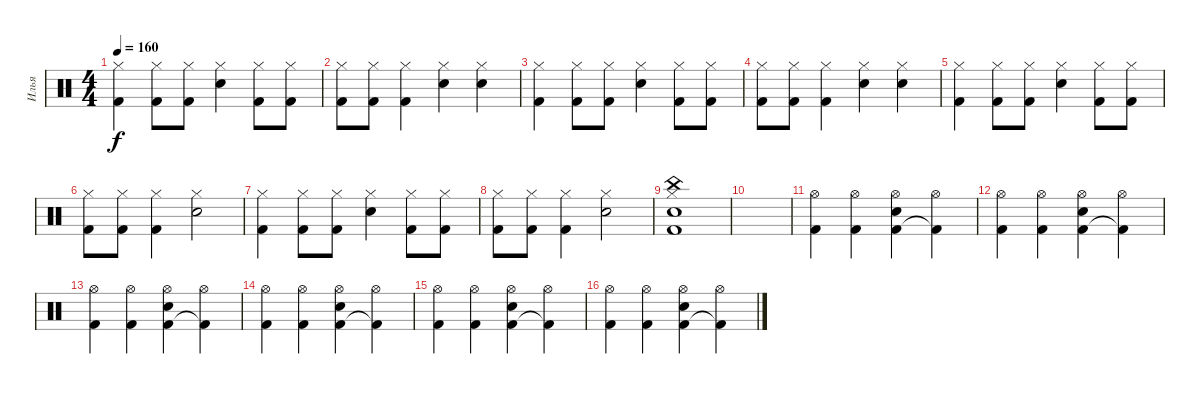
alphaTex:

\track ("Илья" "Илья") {instrument percussion}
\staff {score}
\articulation defaults
\ts (4 4)
\tempo 160
\clef neutral
\ks c
("Kick (hit) 2" "Hi-Hat (closed)").4{dy f} ("Kick (hit) 2" "Hi-Hat (closed)").8 ("Kick (hit) 2" "Hi-Hat (closed)").8 ("Electric Snare (hit)" "Hi-Hat (closed)").4 ("Kick (hit) 2" "Hi-Hat (closed)").8 ("Kick (hit) 2" "Hi-Hat (closed)").8 |
("Kick (hit) 2" "Hi-Hat (closed)").8 ("Kick (hit) 2" "Hi-Hat (closed)").8 ("Kick (hit) 2" "Hi-Hat (closed)").4 ("Electric Snare (hit)" "Hi-Hat (closed)").4 ("Electric Snare (hit)" "Hi-Hat (closed)").4 |
("Kick (hit) 2" "Hi-Hat (closed)").4 ("Kick (hit) 2" "Hi-Hat (closed)").8 ("Kick (hit) 2" "Hi-Hat (closed)").8 ("Electric Snare (hit)" "Hi-Hat (closed)").4 ("Kick (hit) 2" "Hi-Hat (closed)").8 ("Kick (hit) 2" "Hi-Hat (closed)").8 |
("Kick (hit) 2" "Hi-Hat (closed)").8 ("Kick (hit) 2" "Hi-Hat (closed)").8 ("Kick (hit) 2" "Hi-Hat (closed)").4 ("Electric Snare (hit)" "Hi-Hat (closed)").4 ("Electric Snare (hit)" "Hi-Hat (closed)").4 |
("Kick (hit) 2" "Hi-Hat (closed)").4 ("Kick (hit) 2" "Hi-Hat (closed)").8 ("Kick (hit) 2" "Hi-Hat (closed)").8 ("Electric Snare (hit)" "Hi-Hat (closed)").4 ("Kick (hit) 2" "Hi-Hat (closed)").8 ("Kick (hit) 2" "Hi-Hat (closed)").8 |
("Kick (hit) 2" "Hi-Hat (closed)").8 ("Kick (hit) 2" "Hi-Hat (closed)").8 ("Kick (hit) 2" "Hi-Hat (closed)").4 ("Electric Snare (hit)" "Hi-Hat (closed)").2 |
("Kick (hit) 2" "Hi-Hat (closed)").4 ("Kick (hit) 2" "Hi-Hat (closed)").8 ("Kick (hit) 2" "Hi-Hat (closed)").8 ("Electric Snare (hit)" "Hi-Hat (closed)").4 ("Kick (hit) 2" "Hi-Hat (closed)").8 ("Kick (hit) 2" "Hi-Hat (closed)").8 |
("Kick (hit) 2" "Hi-Hat (closed)").8 ("Kick (hit) 2" "Hi-Hat (closed)").8 ("Kick (hit) 2" "Hi-Hat (closed)").4 ("Electric Snare (hit)" "Hi-Hat (closed)").2 |
("China (hit)" "Electric Snare (hit)" "Kick (hit) 2" "Hi-Hat (closed)").1 |
|
("Kick (hit) 2" "Hi-Hat (open)").4 ("Kick (hit) 2" "Hi-Hat (open)").4 ("Kick (hit) 2" "Electric Snare (hit)" "Hi-Hat (open)").4 ("Kick (hit) 2"{t} "Hi-Hat (open)").4 |
("Kick (hit) 2" "Hi-Hat (open)").4 ("Kick (hit) 2" "Hi-Hat (open)").4 ("Kick (hit) 2" "Electric Snare (hit)" "Hi-Hat (open)").4 ("Kick (hit) 2"{t} "Hi-Hat (open)").4 |
("Kick (hit) 2" "Hi-Hat (open)").4 ("Kick (hit) 2" "Hi-Hat (open)").4 ("Kick (hit) 2" "Electric Snare (hit)" "Hi-Hat (open)").4 ("Kick (hit) 2"{t} "Hi-Hat (open)").4 |
("Kick (hit) 2" "Hi-Hat (open)").4 ("Kick (hit) 2" "Hi-Hat (open)").4 ("Kick (hit) 2" "Electric Snare (hit)" "Hi-Hat (open)").4 ("Kick (hit) 2"{t} "Hi-Hat (open)").4 |
("Kick (hit) 2" "Hi-Hat (open)").4 ("Kick (hit) 2" "Hi-Hat (open)").4 ("Kick (hit) 2" "Electric Snare (hit)" "Hi-Hat (open)").4 ("Kick (hit) 2"{t} "Hi-Hat (open)").4 |
("Kick (hit) 2" "Hi-Hat (open)").4 ("Kick (hit) 2" "Hi-Hat (open)").4 ("Kick (hit) 2" "Electric Snare (hit)" "Hi-Hat (open)").4 ("Kick (hit) 2"{t} "Hi-Hat (open)").4
